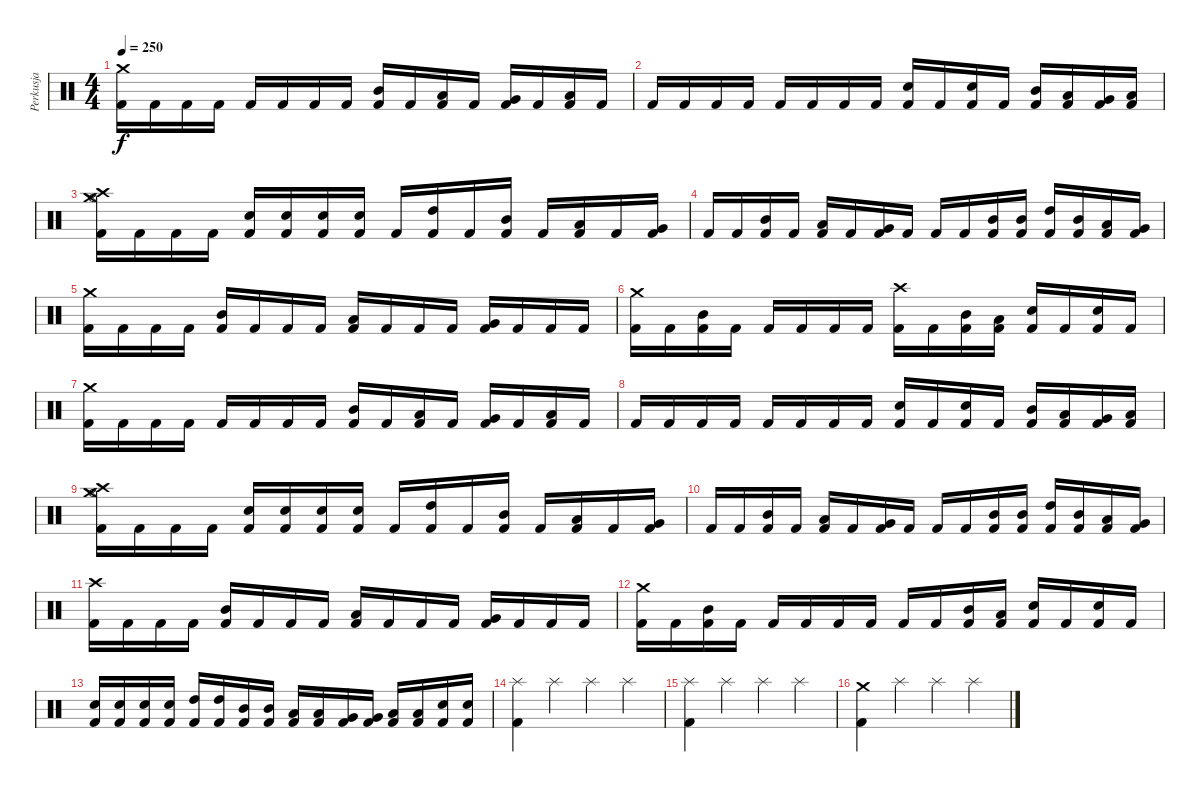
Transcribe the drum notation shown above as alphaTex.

\track ("Perkusja" "Perkusja") {instrument percussion}
\staff {score}
\articulation defaults
\ts (4 4)
\tempo 250
\clef neutral
\ks c
("Crash medium (hit)" "Kick (hit) 2").16{dy f} "Kick (hit) 2".16 "Kick (hit) 2".16 "Kick (hit) 2".16 "Kick (hit) 2".16 "Kick (hit) 2".16 "Kick (hit) 2".16 "Kick (hit) 2".16 ("Mid Tom (hit)" "Kick (hit) 2").16 "Kick (hit) 2".16 ("Low Tom (hit)" "Kick (hit) 2").16 "Kick (hit) 2".16 ("Very Low Tom (hit)" "Kick (hit) 2").16 "Kick (hit) 2".16 ("Low Floor Tom (hit)" "Kick (hit) 2").16 "Kick (hit) 2".16 |
"Kick (hit) 2".16 "Kick (hit) 2".16 "Kick (hit) 2".16 "Kick (hit) 2".16 "Kick (hit) 2".16 "Kick (hit) 2".16 "Kick (hit) 2".16 "Kick (hit) 2".16 ("Electric Snare (hit)" "Kick (hit) 2").16 "Kick (hit) 2".16 ("Electric Snare (hit)" "Kick (hit) 2").16 "Kick (hit) 2".16 ("Mid Tom (hit)" "Kick (hit) 2").16 ("Low Tom (hit)" "Kick (hit) 2").16 ("Very Low Tom (hit)" "Kick (hit) 2").16 ("Low Floor Tom (hit)" "Kick (hit) 2").16 |
("Crash medium (hit)" "Crash high (hit)" "Hi-Hat (open)" "Kick (hit) 2").16 "Kick (hit) 2".16 "Kick (hit) 2".16 "Kick (hit) 2".16 ("Snare (hit) 2" "Kick (hit) 2").16 ("Snare (hit) 2" "Kick (hit) 2").16 ("Snare (hit) 2" "Kick (hit) 2").16 ("Snare (hit) 2" "Kick (hit) 2").16 "Kick (hit) 2".16 ("High Tom (hit)" "Kick (hit) 2").16 "Kick (hit) 2".16 ("Mid Tom (hit)" "Kick (hit) 2").16 "Kick (hit) 2".16 ("Low Tom (hit)" "Kick (hit) 2").16 "Kick (hit) 2".16 ("Very Low Tom (hit)" "Kick (hit) 2").16 |
"Kick (hit) 2".16 "Kick (hit) 2".16 ("Mid Tom (hit)" "Kick (hit) 2").16 "Kick (hit) 2".16 ("Low Tom (hit)" "Kick (hit) 2").16 "Kick (hit) 2".16 ("Very Low Tom (hit)" "Kick (hit) 2").16 "Kick (hit) 2".16 "Kick (hit) 2".16 "Kick (hit) 2".16 ("Mid Tom (hit)" "Kick (hit) 2").16 ("Mid Tom (hit)" "Kick (hit) 2").16 ("High Tom (hit)" "Kick (hit) 2").16 ("Mid Tom (hit)" "Kick (hit) 2").16 ("Low Tom (hit)" "Kick (hit) 2").16 ("Very Low Tom (hit)" "Kick (hit) 2").16 |
("Crash medium (hit)" "Kick (hit) 2").16 "Kick (hit) 2".16 "Kick (hit) 2".16 "Kick (hit) 2".16 ("Mid Tom (hit)" "Kick (hit) 2").16 "Kick (hit) 2".16 "Kick (hit) 2".16 "Kick (hit) 2".16 ("Low Tom (hit)" "Kick (hit) 2").16 "Kick (hit) 2".16 "Kick (hit) 2".16 "Kick (hit) 2".16 ("Very Low Tom (hit)" "Kick (hit) 2").16 "Kick (hit) 2".16 "Kick (hit) 2".16 "Kick (hit) 2".16 |
("Crash medium (hit)" "Kick (hit) 2").16 "Kick (hit) 2".16 ("Mid Tom (hit)" "Kick (hit) 2").16 "Kick (hit) 2".16 "Kick (hit) 2".16 "Kick (hit) 2".16 "Kick (hit) 2".16 "Kick (hit) 2".16 ("Crash high (hit)" "Kick (hit) 2").16 "Kick (hit) 2".16 ("Mid Tom (hit)" "Kick (hit) 2").16 ("Low Tom (hit)" "Kick (hit) 2").16 ("Electric Snare (hit)" "Kick (hit) 2").16 "Kick (hit) 2".16 ("Electric Snare (hit)" "Kick (hit) 2").16 "Kick (hit) 2".16 |
("Crash medium (hit)" "Kick (hit) 2").16 "Kick (hit) 2".16 "Kick (hit) 2".16 "Kick (hit) 2".16 "Kick (hit) 2".16 "Kick (hit) 2".16 "Kick (hit) 2".16 "Kick (hit) 2".16 ("Mid Tom (hit)" "Kick (hit) 2").16 "Kick (hit) 2".16 ("Low Tom (hit)" "Kick (hit) 2").16 "Kick (hit) 2".16 ("Very Low Tom (hit)" "Kick (hit) 2").16 "Kick (hit) 2".16 ("Low Floor Tom (hit)" "Kick (hit) 2").16 "Kick (hit) 2".16 |
"Kick (hit) 2".16 "Kick (hit) 2".16 "Kick (hit) 2".16 "Kick (hit) 2".16 "Kick (hit) 2".16 "Kick (hit) 2".16 "Kick (hit) 2".16 "Kick (hit) 2".16 ("Electric Snare (hit)" "Kick (hit) 2").16 "Kick (hit) 2".16 ("Electric Snare (hit)" "Kick (hit) 2").16 "Kick (hit) 2".16 ("Mid Tom (hit)" "Kick (hit) 2").16 ("Low Tom (hit)" "Kick (hit) 2").16 ("Very Low Tom (hit)" "Kick (hit) 2").16 ("Low Floor Tom (hit)" "Kick (hit) 2").16 |
("Crash medium (hit)" "Crash high (hit)" "Hi-Hat (open)" "Kick (hit) 2").16 "Kick (hit) 2".16 "Kick (hit) 2".16 "Kick (hit) 2".16 ("Snare (hit) 2" "Kick (hit) 2").16 ("Snare (hit) 2" "Kick (hit) 2").16 ("Snare (hit) 2" "Kick (hit) 2").16 ("Snare (hit) 2" "Kick (hit) 2").16 "Kick (hit) 2".16 ("High Tom (hit)" "Kick (hit) 2").16 "Kick (hit) 2".16 ("Mid Tom (hit)" "Kick (hit) 2").16 "Kick (hit) 2".16 ("Low Tom (hit)" "Kick (hit) 2").16 "Kick (hit) 2".16 ("Very Low Tom (hit)" "Kick (hit) 2").16 |
"Kick (hit) 2".16 "Kick (hit) 2".16 ("Mid Tom (hit)" "Kick (hit) 2").16 "Kick (hit) 2".16 ("Low Tom (hit)" "Kick (hit) 2").16 "Kick (hit) 2".16 ("Very Low Tom (hit)" "Kick (hit) 2").16 "Kick (hit) 2".16 "Kick (hit) 2".16 "Kick (hit) 2".16 ("Mid Tom (hit)" "Kick (hit) 2").16 ("Mid Tom (hit)" "Kick (hit) 2").16 ("High Tom (hit)" "Kick (hit) 2").16 ("Mid Tom (hit)" "Kick (hit) 2").16 ("Low Tom (hit)" "Kick (hit) 2").16 ("Very Low Tom (hit)" "Kick (hit) 2").16 |
("Crash high (hit)" "Kick (hit) 2").16 "Kick (hit) 2".16 "Kick (hit) 2".16 "Kick (hit) 2".16 ("Mid Tom (hit)" "Kick (hit) 2").16 "Kick (hit) 2".16 "Kick (hit) 2".16 "Kick (hit) 2".16 ("Low Tom (hit)" "Kick (hit) 2").16 "Kick (hit) 2".16 "Kick (hit) 2".16 "Kick (hit) 2".16 ("Very Low Tom (hit)" "Kick (hit) 2").16 "Kick (hit) 2".16 "Kick (hit) 2".16 "Kick (hit) 2".16 |
("Crash medium (hit)" "Kick (hit) 2").16 "Kick (hit) 2".16 ("Mid Tom (hit)" "Kick (hit) 2").16 "Kick (hit) 2".16 "Kick (hit) 2".16 "Kick (hit) 2".16 "Kick (hit) 2".16 "Kick (hit) 2".16 "Kick (hit) 2".16 "Kick (hit) 2".16 ("Mid Tom (hit)" "Kick (hit) 2").16 ("Low Tom (hit)" "Kick (hit) 2").16 ("Electric Snare (hit)" "Kick (hit) 2").16 "Kick (hit) 2".16 ("Electric Snare (hit)" "Kick (hit) 2").16 "Kick (hit) 2".16 |
("Electric Snare (hit)" "Kick (hit) 2").16 ("Electric Snare (hit)" "Kick (hit) 2").16 ("Electric Snare (hit)" "Kick (hit) 2").16 ("Electric Snare (hit)" "Kick (hit) 2").16 ("High Tom (hit)" "Kick (hit) 2").16 ("High Tom (hit)" "Kick (hit) 2").16 ("Mid Tom (hit)" "Kick (hit) 2").16 ("Mid Tom (hit)" "Kick (hit) 2").16 ("Low Tom (hit)" "Kick (hit) 2").16 ("Low Tom (hit)" "Kick (hit) 2").16 ("Very Low Tom (hit)" "Kick (hit) 2").16 ("Very Low Tom (hit)" "Kick (hit) 2").16 ("Low Floor Tom (hit)" "Kick (hit) 2").16 ("Low Floor Tom (hit)" "Kick (hit) 2").16 ("Snare (hit) 2" "Kick (hit) 2").16 ("Snare (hit) 2" "Kick (hit) 2").16 |
("Splash (hit)" "Kick (hit) 2").4 "Splash (hit)".4 "Splash (hit)".4 "Splash (hit)".4 |
("Splash (hit)" "Kick (hit) 2").4 "Splash (hit)".4 "Splash (hit)".4 "Splash (hit)".4 |
("Crash medium (hit)" "Kick (hit) 2").4 "Splash (hit)".4 "Splash (hit)".4 "Splash (hit)".4
